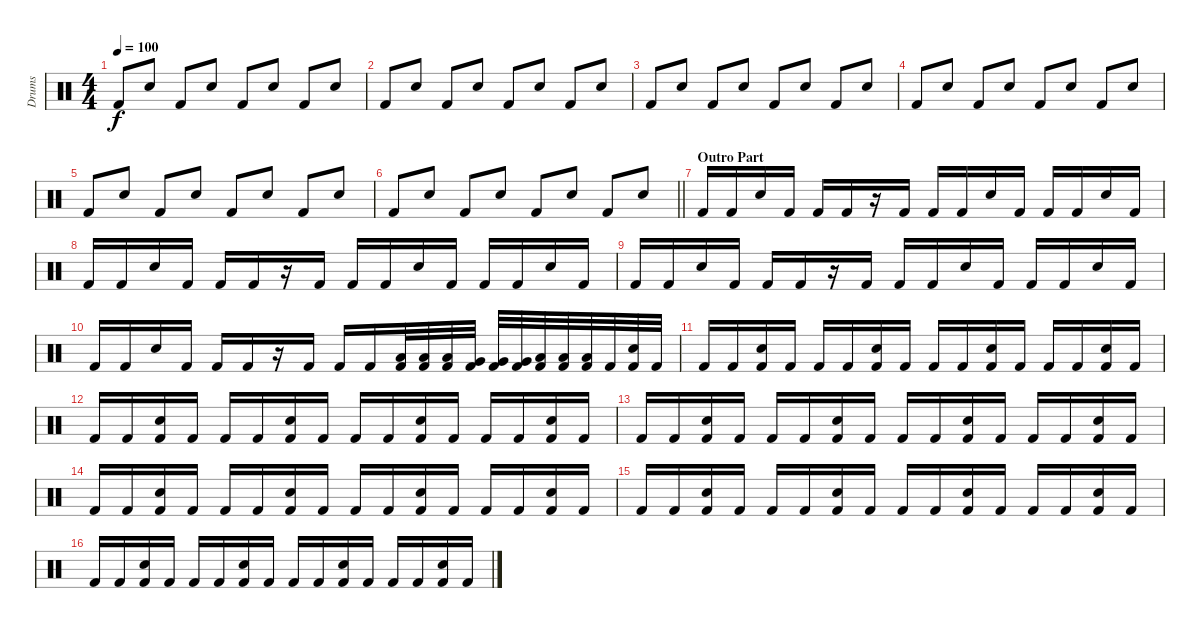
\track ("Drums" "Drums") {instrument percussion}
\staff {score}
\articulation defaults
\ts (4 4)
\tempo 100
\clef neutral
\ks c "Kick (hit) 2".8{dy f} "Snare (hit) 2".8 "Kick (hit) 2".8 "Snare (hit) 2".8 "Kick (hit) 2".8 "Snare (hit) 2".8 "Kick (hit) 2".8 "Snare (hit) 2".8
|
"Kick (hit) 2".8 "Snare (hit) 2".8 "Kick (hit) 2".8 "Snare (hit) 2".8 "Kick (hit) 2".8 "Snare (hit) 2".8 "Kick (hit) 2".8 "Snare (hit) 2".8 |
"Kick (hit) 2".8 "Snare (hit) 2".8 "Kick (hit) 2".8 "Snare (hit) 2".8 "Kick (hit) 2".8 "Snare (hit) 2".8 "Kick (hit) 2".8 "Snare (hit) 2".8 |
"Kick (hit) 2".8 "Snare (hit) 2".8 "Kick (hit) 2".8 "Snare (hit) 2".8 "Kick (hit) 2".8 "Snare (hit) 2".8 "Kick (hit) 2".8 "Snare (hit) 2".8 |
"Kick (hit) 2".8 "Snare (hit) 2".8 "Kick (hit) 2".8 "Snare (hit) 2".8 "Kick (hit) 2".8 "Snare (hit) 2".8 "Kick (hit) 2".8 "Snare (hit) 2".8 |
\barLineRight lightlight "Kick (hit) 2".8 "Snare (hit) 2".8 "Kick (hit) 2".8 "Snare (hit) 2".8 "Kick (hit) 2".8 "Snare (hit) 2".8 "Kick (hit) 2".8 "Snare (hit) 2".8
|
\section ("" "Outro Part")
"Kick (hit) 2".16 "Kick (hit) 2".16 "Snare (hit) 2".16 "Kick (hit) 2".16 "Kick (hit) 2".16 "Kick (hit) 2".16 r.16 "Kick (hit) 2".16 "Kick (hit) 2".16 "Kick (hit) 2".16 "Snare (hit) 2".16 "Kick (hit) 2".16 "Kick (hit) 2".16 "Kick (hit) 2".16 "Snare (hit) 2".16 "Kick (hit) 2".16 |
"Kick (hit) 2".16 "Kick (hit) 2".16 "Snare (hit) 2".16 "Kick (hit) 2".16 "Kick (hit) 2".16 "Kick (hit) 2".16 r.16 "Kick (hit) 2".16 "Kick (hit) 2".16 "Kick (hit) 2".16 "Snare (hit) 2".16 "Kick (hit) 2".16 "Kick (hit) 2".16 "Kick (hit) 2".16 "Snare (hit) 2".16 "Kick (hit) 2".16 |
"Kick (hit) 2".16 "Kick (hit) 2".16 "Snare (hit) 2".16 "Kick (hit) 2".16 "Kick (hit) 2".16 "Kick (hit) 2".16 r.16 "Kick (hit) 2".16 "Kick (hit) 2".16 "Kick (hit) 2".16 "Snare (hit) 2".16 "Kick (hit) 2".16 "Kick (hit) 2".16 "Kick (hit) 2".16 "Snare (hit) 2".16 "Kick (hit) 2".16 |
"Kick (hit) 2".16 "Kick (hit) 2".16 "Snare (hit) 2".16 "Kick (hit) 2".16 "Kick (hit) 2".16 "Kick (hit) 2".16 r.16 "Kick (hit) 2".16 "Kick (hit) 2".16 "Kick (hit) 2".16 ("Low Tom (hit)" "Kick (hit) 2").32 ("Low Tom (hit)" "Kick (hit) 2").32 ("Low Tom (hit)" "Kick (hit) 2").32 ("Very Low Tom (hit)" "Kick (hit) 2").32 ("Very Low Tom (hit)" "Kick (hit) 2").32 ("Very Low Tom (hit)" "Kick (hit) 2").32 ("Low Floor Tom (hit)" "Kick (hit) 2").32 ("Low Floor Tom (hit)" "Kick (hit) 2").32 ("Low Floor Tom (hit)" "Kick (hit) 2").32 "Kick (hit) 2".32 ("Snare (hit) 2" "Kick (hit) 2").32 "Kick (hit) 2".32 |
"Kick (hit) 2".16 "Kick (hit) 2".16 ("Snare (hit) 2" "Kick (hit) 2").16 "Kick (hit) 2".16 "Kick (hit) 2".16 "Kick (hit) 2".16 ("Snare (hit) 2" "Kick (hit) 2").16 "Kick (hit) 2".16 "Kick (hit) 2".16 "Kick (hit) 2".16 ("Snare (hit) 2" "Kick (hit) 2").16 "Kick (hit) 2".16 "Kick (hit) 2".16 "Kick (hit) 2".16 ("Snare (hit) 2" "Kick (hit) 2").16 "Kick (hit) 2".16 |
"Kick (hit) 2".16 "Kick (hit) 2".16 ("Snare (hit) 2" "Kick (hit) 2").16 "Kick (hit) 2".16 "Kick (hit) 2".16 "Kick (hit) 2".16 ("Snare (hit) 2" "Kick (hit) 2").16 "Kick (hit) 2".16 "Kick (hit) 2".16 "Kick (hit) 2".16 ("Snare (hit) 2" "Kick (hit) 2").16 "Kick (hit) 2".16 "Kick (hit) 2".16 "Kick (hit) 2".16 ("Snare (hit) 2" "Kick (hit) 2").16 "Kick (hit) 2".16 |
"Kick (hit) 2".16 "Kick (hit) 2".16 ("Snare (hit) 2" "Kick (hit) 2").16 "Kick (hit) 2".16 "Kick (hit) 2".16 "Kick (hit) 2".16 ("Snare (hit) 2" "Kick (hit) 2").16 "Kick (hit) 2".16 "Kick (hit) 2".16 "Kick (hit) 2".16 ("Snare (hit) 2" "Kick (hit) 2").16 "Kick (hit) 2".16 "Kick (hit) 2".16 "Kick (hit) 2".16 ("Snare (hit) 2" "Kick (hit) 2").16 "Kick (hit) 2".16 |
"Kick (hit) 2".16 "Kick (hit) 2".16 ("Snare (hit) 2" "Kick (hit) 2").16 "Kick (hit) 2".16 "Kick (hit) 2".16 "Kick (hit) 2".16 ("Snare (hit) 2" "Kick (hit) 2").16 "Kick (hit) 2".16 "Kick (hit) 2".16 "Kick (hit) 2".16 ("Snare (hit) 2" "Kick (hit) 2").16 "Kick (hit) 2".16 "Kick (hit) 2".16 "Kick (hit) 2".16 ("Snare (hit) 2" "Kick (hit) 2").16 "Kick (hit) 2".16 |
"Kick (hit) 2".16 "Kick (hit) 2".16 ("Snare (hit) 2" "Kick (hit) 2").16 "Kick (hit) 2".16 "Kick (hit) 2".16 "Kick (hit) 2".16 ("Snare (hit) 2" "Kick (hit) 2").16 "Kick (hit) 2".16 "Kick (hit) 2".16 "Kick (hit) 2".16 ("Snare (hit) 2" "Kick (hit) 2").16 "Kick (hit) 2".16 "Kick (hit) 2".16 "Kick (hit) 2".16 ("Snare (hit) 2" "Kick (hit) 2").16 "Kick (hit) 2".16 |
"Kick (hit) 2".16 "Kick (hit) 2".16 ("Snare (hit) 2" "Kick (hit) 2").16 "Kick (hit) 2".16 "Kick (hit) 2".16 "Kick (hit) 2".16 ("Snare (hit) 2" "Kick (hit) 2").16 "Kick (hit) 2".16 "Kick (hit) 2".16 "Kick (hit) 2".16 ("Snare (hit) 2" "Kick (hit) 2").16 "Kick (hit) 2".16 "Kick (hit) 2".16 "Kick (hit) 2".16 ("Snare (hit) 2" "Kick (hit) 2").16 "Kick (hit) 2".16
